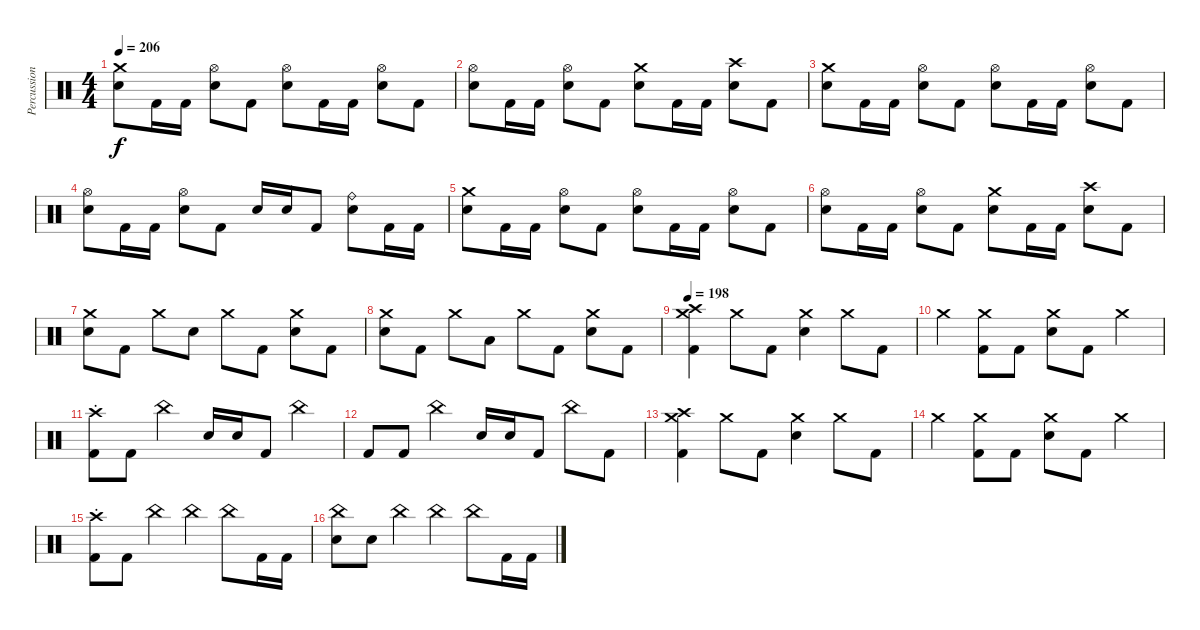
\track ("Percussion" "Percussion") {instrument percussion}
\staff {score}
\articulation defaults
\ts (4 4)
\tempo 206
\clef neutral
\ks c
("Crash medium (hit)" "Electric Snare (hit)").8{dy f} "Kick (hit) 2".16 "Kick (hit) 2".16 ("Hi-Hat (open)" "Electric Snare (hit)").8 "Kick (hit) 2".8 ("Hi-Hat (open)" "Electric Snare (hit)").8 "Kick (hit) 2".16 "Kick (hit) 2".16 ("Hi-Hat (open)" "Electric Snare (hit)").8 "Kick (hit) 2".8 |
("Hi-Hat (open)" "Electric Snare (hit)").8 "Kick (hit) 2".16 "Kick (hit) 2".16 ("Hi-Hat (open)" "Electric Snare (hit)").8 "Kick (hit) 2".8 ("Crash medium (hit)" "Electric Snare (hit)").8 "Kick (hit) 2".16 "Kick (hit) 2".16 ("Crash high (hit)" "Electric Snare (hit)").8 "Kick (hit) 2".8 |
("Crash medium (hit)" "Electric Snare (hit)").8 "Kick (hit) 2".16 "Kick (hit) 2".16 ("Hi-Hat (open)" "Electric Snare (hit)").8 "Kick (hit) 2".8 ("Hi-Hat (open)" "Electric Snare (hit)").8 "Kick (hit) 2".16 "Kick (hit) 2".16 ("Hi-Hat (open)" "Electric Snare (hit)").8 "Kick (hit) 2".8 |
("Hi-Hat (open)" "Electric Snare (hit)").8 "Kick (hit) 2".16 "Kick (hit) 2".16 ("Hi-Hat (open)" "Electric Snare (hit)").8 "Kick (hit) 2".8 "Electric Snare (hit)".16 "Electric Snare (hit)".16 "Kick (hit) 2".8 ("Ride (bell)" "Electric Snare (hit)").8 "Kick (hit) 2".16 "Kick (hit) 2".16 |
("Crash medium (hit)" "Electric Snare (hit)").8 "Kick (hit) 2".16 "Kick (hit) 2".16 ("Hi-Hat (open)" "Electric Snare (hit)").8 "Kick (hit) 2".8 ("Hi-Hat (open)" "Electric Snare (hit)").8 "Kick (hit) 2".16 "Kick (hit) 2".16 ("Hi-Hat (open)" "Electric Snare (hit)").8 "Kick (hit) 2".8 |
("Hi-Hat (open)" "Electric Snare (hit)").8 "Kick (hit) 2".16 "Kick (hit) 2".16 ("Hi-Hat (open)" "Electric Snare (hit)").8 "Kick (hit) 2".8 ("Crash medium (hit)" "Electric Snare (hit)").8 "Kick (hit) 2".16 "Kick (hit) 2".16 ("Crash high (hit)" "Electric Snare (hit)").8 "Kick (hit) 2".8 |
("Crash medium (hit)" "Electric Snare (hit)").8 "Kick (hit) 2".8 "Crash medium (hit)".8 "Electric Snare (hit)".8 "Crash medium (hit)".8 "Kick (hit) 2".8 ("Crash medium (hit)" "Electric Snare (hit)").8 "Kick (hit) 2".8 |
("Crash medium (hit)" "Electric Snare (hit)").8 "Kick (hit) 2".8 "Crash medium (hit)".8 "Low Tom (hit)".8 "Crash medium (hit)".8 "Kick (hit) 2".8 ("Crash medium (hit)" "Electric Snare (hit)").8 "Kick (hit) 2".8 |
\tempo 198
("Crash medium (hit)" "Crash high (hit)" "Kick (hit) 2").4 "Crash medium (hit)".8 "Kick (hit) 2".8 ("Crash medium (hit)" "Electric Snare (hit)").4 "Crash medium (hit)".8 "Kick (hit) 2".8 |
"Crash medium (hit)".4 ("Crash medium (hit)" "Kick (hit) 2").8 "Kick (hit) 2".8 ("Crash medium (hit)" "Electric Snare (hit)").8 "Kick (hit) 2".8 "Crash medium (hit)".4 |
("Crash high (hit)"{st} "Kick (hit) 2").8 "Kick (hit) 2".8 "China (hit)".4 "Electric Snare (hit)".16 "Electric Snare (hit)".16 "Kick (hit) 2".8 "China (hit)".4 |
"Kick (hit) 2".8 "Kick (hit) 2".8 "China (hit)".4 "Electric Snare (hit)".16 "Electric Snare (hit)".16 "Kick (hit) 2".8 "China (hit)".8 "Kick (hit) 2".8 |
("Crash medium (hit)" "Crash high (hit)" "Kick (hit) 2").4 "Crash medium (hit)".8 "Kick (hit) 2".8 ("Crash medium (hit)" "Electric Snare (hit)").4 "Crash medium (hit)".8 "Kick (hit) 2".8 |
"Crash medium (hit)".4 ("Crash medium (hit)" "Kick (hit) 2").8 "Kick (hit) 2".8 ("Crash medium (hit)" "Electric Snare (hit)").8 "Kick (hit) 2".8 "Crash medium (hit)".4 |
("Crash high (hit)"{st} "Kick (hit) 2").8 "Kick (hit) 2".8 "China (hit)".4 "China (hit)".4 "China (hit)".8 "Kick (hit) 2".16 "Kick (hit) 2".16 |
("China (hit)" "Electric Snare (hit)").8 "Electric Snare (hit)".8 "China (hit)".4 "China (hit)".4 "China (hit)".8 "Kick (hit) 2".16 "Kick (hit) 2".16
